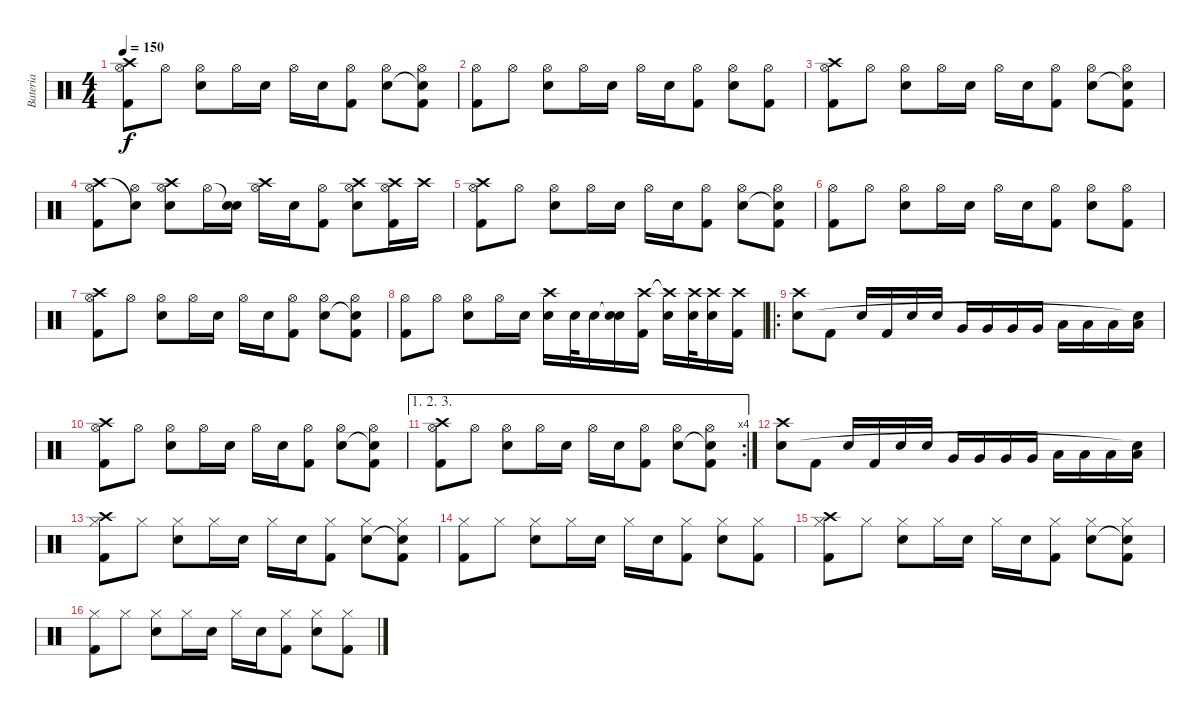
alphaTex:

\track ("Bateria" "Bateria") {instrument percussion}
\staff {score}
\articulation defaults
\ts (4 4)
\tempo 150
\clef neutral
\ks c
("Hi-Hat (open)" "Crash high (hit)" "Kick (hit) 2").8{dy f} "Hi-Hat (open)".8 ("Hi-Hat (open)" "Snare (hit) 2").8 "Hi-Hat (open)".16 "Snare (hit) 2".16 "Hi-Hat (open)".16 "Snare (hit) 2".16 ("Hi-Hat (open)" "Kick (hit) 2").8 ("Hi-Hat (open)" "Snare (hit) 2").8 ("Hi-Hat (open)" "Snare (hit)"{t} "Kick (hit) 2").8 |
("Hi-Hat (open)" "Kick (hit) 2").8 "Hi-Hat (open)".8 ("Hi-Hat (open)" "Snare (hit) 2").8 "Hi-Hat (open)".16 "Snare (hit) 2".16 "Hi-Hat (open)".16 "Snare (hit) 2".16 ("Hi-Hat (open)" "Kick (hit) 2").8 ("Hi-Hat (open)" "Snare (hit) 2").8 ("Hi-Hat (open)" "Kick (hit) 2").8 |
("Hi-Hat (open)" "Crash high (hit)" "Kick (hit) 2").8 "Hi-Hat (open)".8 ("Hi-Hat (open)" "Snare (hit) 2").8 "Hi-Hat (open)".16 "Snare (hit) 2".16 "Hi-Hat (open)".16 "Snare (hit) 2".16 ("Hi-Hat (open)" "Kick (hit) 2").8 ("Hi-Hat (open)" "Snare (hit) 2").8 ("Hi-Hat (open)" "Snare (hit)"{t} "Kick (hit) 2").8 |
("Hi-Hat (open)" "Crash high (hit)" "Kick (hit) 2").8 ("Hi-Hat (open)" "Snare (hit)"{t}).8 ("Hi-Hat (open)" "Crash high (hit)" "Snare (hit) 2").8 "Hi-Hat (open)".16 ("Snare (hit)"{t} "Snare (hit) 2").16 ("Hi-Hat (open)" "Crash high (hit)").16 "Snare (hit) 2".16 ("Hi-Hat (open)" "Kick (hit) 2").8 ("Hi-Hat (open)" "Crash high (hit)" "Snare (hit) 2").8 ("Hi-Hat (open)" "Crash high (hit)" "Kick (hit) 2").16 "Crash high (hit)".16 |
("Hi-Hat (open)" "Crash high (hit)" "Kick (hit) 2").8 "Hi-Hat (open)".8 ("Hi-Hat (open)" "Snare (hit) 2").8 "Hi-Hat (open)".16 "Snare (hit) 2".16 "Hi-Hat (open)".16 "Snare (hit) 2".16 ("Hi-Hat (open)" "Kick (hit) 2").8 ("Hi-Hat (open)" "Snare (hit) 2").8 ("Hi-Hat (open)" "Snare (hit)"{t} "Kick (hit) 2").8 |
("Hi-Hat (open)" "Kick (hit) 2").8 "Hi-Hat (open)".8 ("Hi-Hat (open)" "Snare (hit) 2").8 "Hi-Hat (open)".16 "Snare (hit) 2".16 "Hi-Hat (open)".16 "Snare (hit) 2".16 ("Hi-Hat (open)" "Kick (hit) 2").8 ("Hi-Hat (open)" "Snare (hit) 2").8 ("Hi-Hat (open)" "Kick (hit) 2").8 |
("Hi-Hat (open)" "Crash high (hit)" "Kick (hit) 2").8 "Hi-Hat (open)".8 ("Hi-Hat (open)" "Snare (hit) 2").8 "Hi-Hat (open)".16 "Snare (hit) 2".16 "Hi-Hat (open)".16 "Snare (hit) 2".16 ("Hi-Hat (open)" "Kick (hit) 2").8 ("Hi-Hat (open)" "Snare (hit) 2").8 ("Hi-Hat (open)" "Snare (hit)"{t} "Kick (hit) 2").8 |
("Hi-Hat (open)" "Kick (hit) 2").8 "Hi-Hat (open)".8 ("Hi-Hat (open)" "Snare (hit) 2").8 "Hi-Hat (open)".16 "Snare (hit) 2".16 ("Crash high (hit)" "Snare (hit) 2").16 "Snare (hit) 2".32 "Snare (hit) 2".16 ("Snare (hit)"{t} "Snare (hit) 2").16 ("Crash high (hit)" "Kick (hit) 2").16 ("Crash high (hit)"{t} "Snare (hit) 2").16 ("Crash high (hit)" "Snare (hit) 2").32 ("Crash high (hit)" "Snare (hit) 2").16 ("Crash high (hit)" "Kick (hit) 2").16 |
\ro
("Crash high (hit)" "Snare (hit) 2").8 "Kick (hit) 2".8 "Snare (hit) 2".16 "Kick (hit) 2".16 "Snare (hit) 2".16 "Snare (hit) 2".16 "Very Low Tom (hit)".16 "Very Low Tom (hit)".16 "Very Low Tom (hit)".16 "Very Low Tom (hit)".16 "Low Floor Tom (hit)".16 "Low Floor Tom (hit)".16 "Low Floor Tom (hit)".16 ("Low Floor Tom (hit)" "Snare (hit)"{t}).16 |
("Hi-Hat (open)" "Crash high (hit)" "Kick (hit) 2").8 "Hi-Hat (open)".8 ("Hi-Hat (open)" "Snare (hit) 2").8 "Hi-Hat (open)".16 "Snare (hit) 2".16 "Hi-Hat (open)".16 "Snare (hit) 2".16 ("Hi-Hat (open)" "Kick (hit) 2").8 ("Hi-Hat (open)" "Snare (hit) 2").8 ("Hi-Hat (open)" "Snare (hit)"{t} "Kick (hit) 2").8 |
\ae (1 2 3)
\rc 4
("Hi-Hat (open)" "Crash high (hit)" "Kick (hit) 2").8 "Hi-Hat (open)".8 ("Hi-Hat (open)" "Snare (hit) 2").8 "Hi-Hat (open)".16 "Snare (hit) 2".16 "Hi-Hat (open)".16 "Snare (hit) 2".16 ("Hi-Hat (open)" "Kick (hit) 2").8 ("Hi-Hat (open)" "Snare (hit) 2").8 ("Hi-Hat (open)" "Snare (hit)"{t} "Kick (hit) 2").8 |
("Crash high (hit)" "Snare (hit) 2").8 "Kick (hit) 2".8 "Snare (hit) 2".16 "Kick (hit) 2".16 "Snare (hit) 2".16 "Snare (hit) 2".16 "Very Low Tom (hit)".16 "Very Low Tom (hit)".16 "Very Low Tom (hit)".16 "Very Low Tom (hit)".16 "Low Floor Tom (hit)".16 "Low Floor Tom (hit)".16 "Low Floor Tom (hit)".16 ("Low Floor Tom (hit)" "Snare (hit)"{t}).16 |
("Hi-Hat (closed)" "Crash high (hit)" "Kick (hit) 2").8 "Hi-Hat (closed)".8 ("Hi-Hat (closed)" "Snare (hit) 2").8 "Hi-Hat (closed)".16 "Snare (hit) 2".16 "Hi-Hat (closed)".16 "Snare (hit) 2".16 ("Hi-Hat (closed)" "Kick (hit) 2").8 ("Hi-Hat (closed)" "Snare (hit) 2").8 ("Hi-Hat (closed)" "Snare (hit)"{t} "Kick (hit) 2").8 |
("Hi-Hat (closed)" "Kick (hit) 2").8 "Hi-Hat (closed)".8 ("Hi-Hat (closed)" "Snare (hit) 2").8 "Hi-Hat (closed)".16 "Snare (hit) 2".16 "Hi-Hat (closed)".16 "Snare (hit) 2".16 ("Hi-Hat (closed)" "Kick (hit) 2").8 ("Hi-Hat (closed)" "Snare (hit) 2").8 ("Hi-Hat (closed)" "Kick (hit) 2").8 |
("Hi-Hat (closed)" "Crash high (hit)" "Kick (hit) 2").8 "Hi-Hat (closed)".8 ("Hi-Hat (closed)" "Snare (hit) 2").8 "Hi-Hat (closed)".16 "Snare (hit) 2".16 "Hi-Hat (closed)".16 "Snare (hit) 2".16 ("Hi-Hat (closed)" "Kick (hit) 2").8 ("Hi-Hat (closed)" "Snare (hit) 2").8 ("Hi-Hat (closed)" "Snare (hit)"{t} "Kick (hit) 2").8 |
("Hi-Hat (closed)" "Kick (hit) 2").8 "Hi-Hat (closed)".8 ("Hi-Hat (closed)" "Snare (hit) 2").8 "Hi-Hat (closed)".16 "Snare (hit) 2".16 "Hi-Hat (closed)".16 "Snare (hit) 2".16 ("Hi-Hat (closed)" "Kick (hit) 2").8 ("Hi-Hat (closed)" "Snare (hit) 2").8 ("Hi-Hat (closed)" "Kick (hit) 2").8
